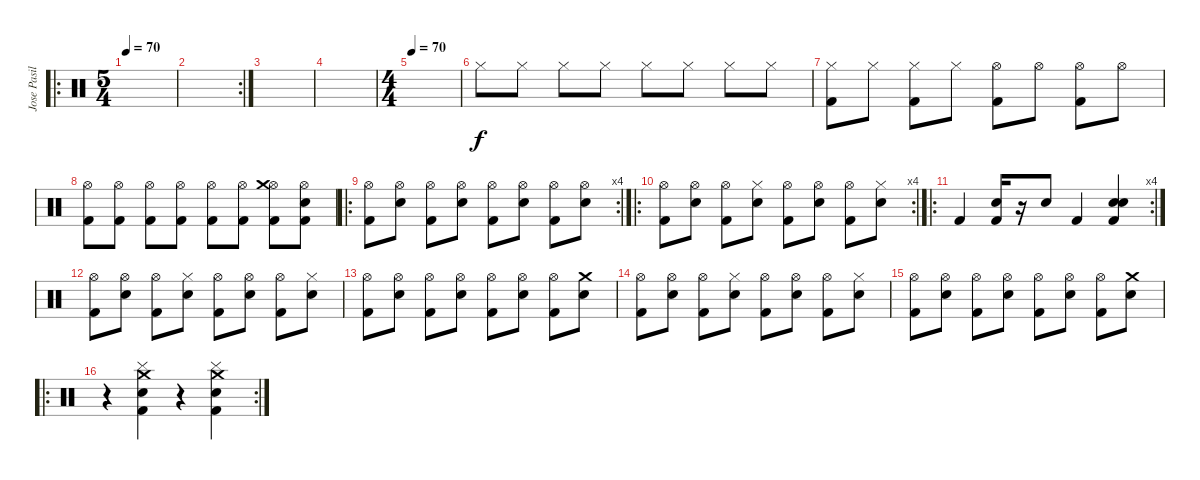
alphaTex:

\track ("Jose Pasillas" "Jose Pasil") {instrument percussion}
\staff {score}
\articulation defaults
\ro
\ts (5 4)
\tempo 70
\tempo 55
\tempo 70
\clef neutral
\ks c
|
\rc 2
|
|
|
\ts (4 4)
\tempo 70
|
"Hi-Hat (closed)".8 "Hi-Hat (closed)".8 "Hi-Hat (closed)".8 "Hi-Hat (closed)".8 "Hi-Hat (closed)".8 "Hi-Hat (closed)".8 "Hi-Hat (closed)".8 "Hi-Hat (closed)".8 |
("Hi-Hat (closed)" "Kick (hit) 2").8 "Hi-Hat (closed)".8 ("Hi-Hat (closed)" "Kick (hit) 2").8 "Hi-Hat (closed)".8 ("Hi-Hat (open)" "Kick (hit) 2").8 "Hi-Hat (open)".8 ("Hi-Hat (open)" "Kick (hit) 2").8 "Hi-Hat (open)".8 |
("Hi-Hat (open)" "Kick (hit) 2").8 ("Hi-Hat (open)" "Kick (hit) 2").8 ("Hi-Hat (open)" "Kick (hit) 2").8 ("Hi-Hat (open)" "Kick (hit) 2").8 ("Hi-Hat (open)" "Kick (hit) 2").8 ("Hi-Hat (open)" "Kick (hit) 2").8 ("Hi-Hat (open)" "Crash medium (hit)" "Kick (hit) 2").8 ("Hi-Hat (open)" "Snare (hit) 2" "Kick (hit) 2").8 |
\ro
\rc 4
("Hi-Hat (open)" "Kick (hit) 2").8 ("Hi-Hat (open)" "Snare (hit) 2").8 ("Hi-Hat (open)" "Kick (hit) 2").8 ("Hi-Hat (open)" "Snare (hit) 2").8 ("Hi-Hat (open)" "Kick (hit) 2").8 ("Hi-Hat (open)" "Snare (hit) 2").8 ("Hi-Hat (open)" "Kick (hit) 2").8 ("Hi-Hat (open)" "Snare (hit) 2").8 |
\ro
\rc 4
("Hi-Hat (open)" "Kick (hit) 2").8 ("Hi-Hat (open)" "Snare (hit) 2").8 ("Hi-Hat (open)" "Kick (hit) 2").8 ("Hi-Hat (closed)" "Snare (hit) 2").8 ("Hi-Hat (open)" "Kick (hit) 2").8 ("Hi-Hat (open)" "Snare (hit) 2").8 ("Hi-Hat (open)" "Kick (hit) 2").8 ("Hi-Hat (closed)" "Snare (hit) 2").8 |
\ro
\rc 4 "Kick (hit) 2".4
("Snare (hit) 2" "Kick (hit) 2").16 r.16 "Snare (hit)".8 "Kick (hit) 2".4 ("Snare (hit) 2" "Kick (hit) 2" "Snare (hit)").4 |
("Hi-Hat (open)" "Kick (hit) 2").8 ("Hi-Hat (open)" "Snare (hit) 2").8 ("Hi-Hat (open)" "Kick (hit) 2").8 ("Hi-Hat (closed)" "Snare (hit) 2").8 ("Hi-Hat (open)" "Kick (hit) 2").8 ("Hi-Hat (open)" "Snare (hit) 2").8 ("Hi-Hat (open)" "Kick (hit) 2").8 ("Hi-Hat (closed)" "Snare (hit) 2").8 |
("Hi-Hat (open)" "Kick (hit) 2").8 ("Hi-Hat (open)" "Snare (hit) 2").8 ("Hi-Hat (open)" "Kick (hit) 2").8 ("Hi-Hat (open)" "Snare (hit) 2").8 ("Hi-Hat (open)" "Kick (hit) 2").8 ("Hi-Hat (open)" "Snare (hit) 2").8 ("Hi-Hat (open)" "Kick (hit) 2").8 ("Crash medium (hit)" "Snare (hit) 2").8 |
("Hi-Hat (open)" "Kick (hit) 2").8 ("Hi-Hat (open)" "Snare (hit) 2").8 ("Hi-Hat (open)" "Kick (hit) 2").8 ("Hi-Hat (closed)" "Snare (hit) 2").8 ("Hi-Hat (open)" "Kick (hit) 2").8 ("Hi-Hat (open)" "Snare (hit) 2").8 ("Hi-Hat (open)" "Kick (hit) 2").8 ("Hi-Hat (closed)" "Snare (hit) 2").8 |
("Hi-Hat (open)" "Kick (hit) 2").8 ("Hi-Hat (open)" "Snare (hit) 2").8 ("Hi-Hat (open)" "Kick (hit) 2").8 ("Hi-Hat (open)" "Snare (hit) 2").8 ("Hi-Hat (open)" "Kick (hit) 2").8 ("Hi-Hat (open)" "Snare (hit) 2").8 ("Hi-Hat (open)" "Kick (hit) 2").8 ("Crash medium (hit)" "Snare (hit) 2").8 |
\ro
\rc 2
r.4 ("Cymbal (hit)" "Crash medium (hit)" "Kick (hit) 2" "Snare (hit) 2").4 r.4 ("Cymbal (hit)" "Crash medium (hit)" "Kick (hit) 2" "Snare (hit) 2").4
